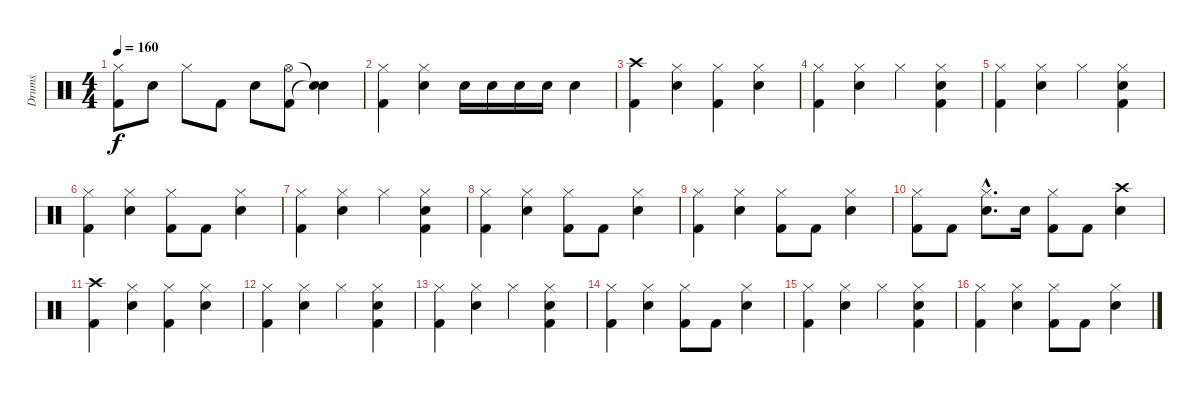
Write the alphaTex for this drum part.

\track ("Drums" "Drums") {instrument percussion}
\staff {score}
\articulation defaults
\ts (4 4)
\tempo 160
\clef neutral
\ks c
("Hi-Hat (closed)" "Kick (hit) 2").8{dy f} "Snare (hit) 2".8 "Hi-Hat (closed)".8 "Kick (hit) 2".8 "Snare (hit) 2".8 ("Hi-Hat (open)" "Kick (hit) 2").8 ("Snare (hit)"{t} "Snare (hit)"{t}).4 |
("Hi-Hat (closed)" "Kick (hit) 2").4 ("Hi-Hat (closed)" "Snare (hit) 2").4 "Snare (hit) 2".16 "Snare (hit) 2".16 "Snare (hit) 2".16 "Snare (hit) 2".16 "Snare (hit) 2".4 |
("Crash high (hit)" "Kick (hit) 2").4 ("Hi-Hat (closed)" "Snare (hit) 2").4 ("Hi-Hat (closed)" "Kick (hit) 2").4 ("Hi-Hat (closed)" "Snare (hit) 2").4 |
("Hi-Hat (closed)" "Kick (hit) 2").4 ("Hi-Hat (closed)" "Snare (hit) 2").4 "Hi-Hat (closed)".4 ("Hi-Hat (closed)" "Snare (hit) 2" "Kick (hit) 2").4 |
("Hi-Hat (closed)" "Kick (hit) 2").4 ("Hi-Hat (closed)" "Snare (hit) 2").4 "Hi-Hat (closed)".4 ("Hi-Hat (closed)" "Snare (hit) 2" "Kick (hit) 2").4 |
("Hi-Hat (closed)" "Kick (hit) 2").4 ("Hi-Hat (closed)" "Snare (hit) 2").4 ("Hi-Hat (closed)" "Kick (hit) 2").8 "Kick (hit) 2".8 ("Hi-Hat (closed)" "Snare (hit) 2").4 |
("Hi-Hat (closed)" "Kick (hit) 2").4 ("Hi-Hat (closed)" "Snare (hit) 2").4 "Hi-Hat (closed)".4 ("Hi-Hat (closed)" "Snare (hit) 2" "Kick (hit) 2").4 |
("Hi-Hat (closed)" "Kick (hit) 2").4 ("Hi-Hat (closed)" "Snare (hit) 2").4 ("Hi-Hat (closed)" "Kick (hit) 2").8 "Kick (hit) 2".8 ("Hi-Hat (closed)" "Snare (hit) 2").4 |
("Hi-Hat (closed)" "Kick (hit) 2").4 ("Hi-Hat (closed)" "Snare (hit) 2").4 ("Hi-Hat (closed)" "Kick (hit) 2").8 "Kick (hit) 2".8 ("Hi-Hat (closed)" "Snare (hit) 2").4 |
("Hi-Hat (closed)" "Kick (hit) 2").8 "Kick (hit) 2".8 ("Hi-Hat (closed)"{hac} "Snare (hit) 2"{hac}).8{d} "Snare (hit) 2".16 ("Hi-Hat (closed)" "Kick (hit) 2").8 "Kick (hit) 2".8 ("Crash high (hit)" "Snare (hit) 2").4 |
("Crash high (hit)" "Kick (hit) 2").4 ("Hi-Hat (closed)" "Snare (hit) 2").4 ("Hi-Hat (closed)" "Kick (hit) 2").4 ("Hi-Hat (closed)" "Snare (hit) 2").4 |
("Hi-Hat (closed)" "Kick (hit) 2").4 ("Hi-Hat (closed)" "Snare (hit) 2").4 "Hi-Hat (closed)".4 ("Hi-Hat (closed)" "Snare (hit) 2" "Kick (hit) 2").4 |
("Hi-Hat (closed)" "Kick (hit) 2").4 ("Hi-Hat (closed)" "Snare (hit) 2").4 "Hi-Hat (closed)".4 ("Hi-Hat (closed)" "Snare (hit) 2" "Kick (hit) 2").4 |
("Hi-Hat (closed)" "Kick (hit) 2").4 ("Hi-Hat (closed)" "Snare (hit) 2").4 ("Hi-Hat (closed)" "Kick (hit) 2").8 "Kick (hit) 2".8 ("Hi-Hat (closed)" "Snare (hit) 2").4 |
("Hi-Hat (closed)" "Kick (hit) 2").4 ("Hi-Hat (closed)" "Snare (hit) 2").4 "Hi-Hat (closed)".4 ("Hi-Hat (closed)" "Snare (hit) 2" "Kick (hit) 2").4 |
("Hi-Hat (closed)" "Kick (hit) 2").4 ("Hi-Hat (closed)" "Snare (hit) 2").4 ("Hi-Hat (closed)" "Kick (hit) 2").8 "Kick (hit) 2".8 ("Hi-Hat (closed)" "Snare (hit) 2").4
